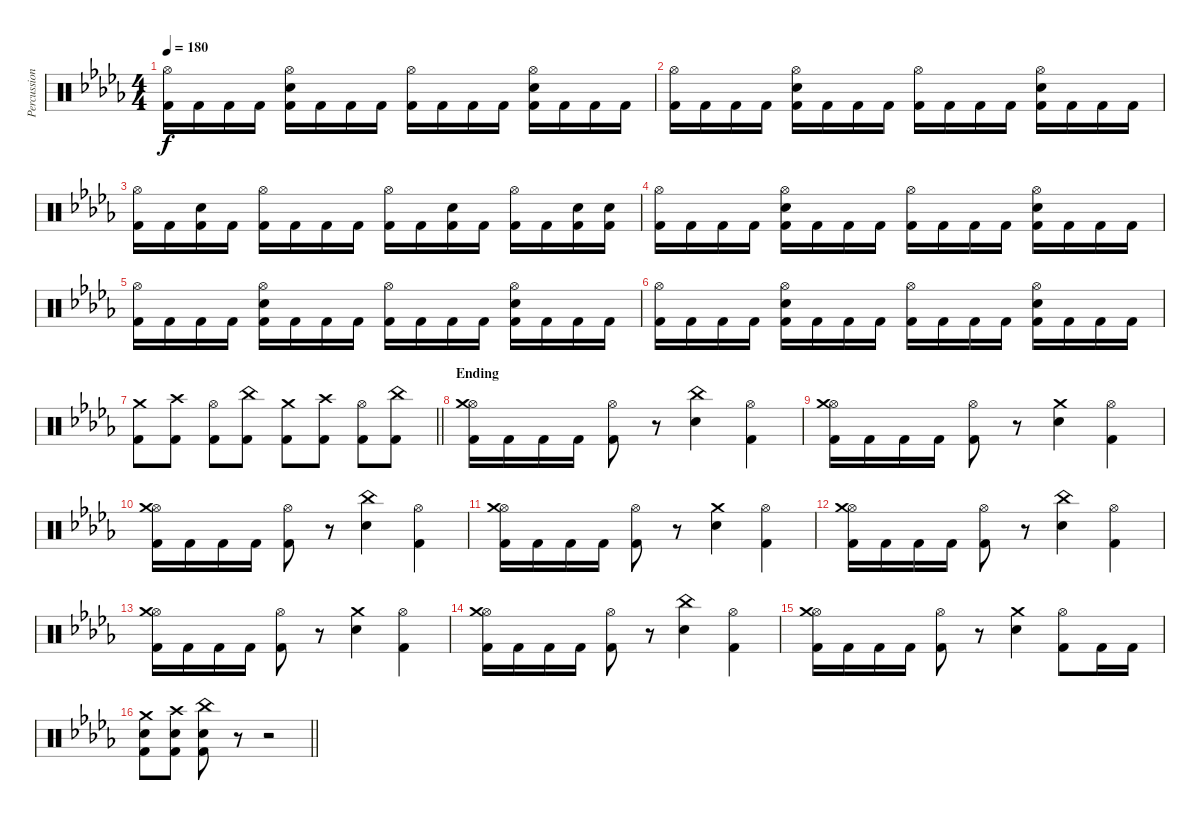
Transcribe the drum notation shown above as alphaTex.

\track ("Percussions" "Percussion") {instrument percussion}
\staff {score}
\articulation defaults
\ts (4 4)
\tempo 180
\clef neutral
\ks bbminor
("Hi-Hat (open)" "Kick (hit) 2").16{dy f} "Kick (hit) 2".16 "Kick (hit) 2".16 "Kick (hit) 2".16 ("Hi-Hat (open)" "Electric Snare (hit)" "Kick (hit) 2").16 "Kick (hit) 2".16 "Kick (hit) 2".16 "Kick (hit) 2".16 ("Hi-Hat (open)" "Kick (hit) 2").16 "Kick (hit) 2".16 "Kick (hit) 2".16 "Kick (hit) 2".16 ("Hi-Hat (open)" "Electric Snare (hit)" "Kick (hit) 2").16 "Kick (hit) 2".16 "Kick (hit) 2".16 "Kick (hit) 2".16 |
("Hi-Hat (open)" "Kick (hit) 2").16 "Kick (hit) 2".16 "Kick (hit) 2".16 "Kick (hit) 2".16 ("Hi-Hat (open)" "Electric Snare (hit)" "Kick (hit) 2").16 "Kick (hit) 2".16 "Kick (hit) 2".16 "Kick (hit) 2".16 ("Hi-Hat (open)" "Kick (hit) 2").16 "Kick (hit) 2".16 "Kick (hit) 2".16 "Kick (hit) 2".16 ("Hi-Hat (open)" "Electric Snare (hit)" "Kick (hit) 2").16 "Kick (hit) 2".16 "Kick (hit) 2".16 "Kick (hit) 2".16 |
("Hi-Hat (open)" "Kick (hit) 2").16 "Kick (hit) 2".16 ("Electric Snare (hit)" "Kick (hit) 2").16 "Kick (hit) 2".16 ("Hi-Hat (open)" "Kick (hit) 2").16 "Kick (hit) 2".16 "Kick (hit) 2".16 "Kick (hit) 2".16 ("Hi-Hat (open)" "Kick (hit) 2").16 "Kick (hit) 2".16 ("Electric Snare (hit)" "Kick (hit) 2").16 "Kick (hit) 2".16 ("Hi-Hat (open)" "Kick (hit) 2").16 "Kick (hit) 2".16 ("Electric Snare (hit)" "Kick (hit) 2").16 ("Electric Snare (hit)" "Kick (hit) 2").16 |
("Hi-Hat (open)" "Kick (hit) 2").16 "Kick (hit) 2".16 "Kick (hit) 2".16 "Kick (hit) 2".16 ("Hi-Hat (open)" "Electric Snare (hit)" "Kick (hit) 2").16 "Kick (hit) 2".16 "Kick (hit) 2".16 "Kick (hit) 2".16 ("Hi-Hat (open)" "Kick (hit) 2").16 "Kick (hit) 2".16 "Kick (hit) 2".16 "Kick (hit) 2".16 ("Hi-Hat (open)" "Electric Snare (hit)" "Kick (hit) 2").16 "Kick (hit) 2".16 "Kick (hit) 2".16 "Kick (hit) 2".16 |
("Hi-Hat (open)" "Kick (hit) 2").16 "Kick (hit) 2".16 "Kick (hit) 2".16 "Kick (hit) 2".16 ("Hi-Hat (open)" "Electric Snare (hit)" "Kick (hit) 2").16 "Kick (hit) 2".16 "Kick (hit) 2".16 "Kick (hit) 2".16 ("Hi-Hat (open)" "Kick (hit) 2").16 "Kick (hit) 2".16 "Kick (hit) 2".16 "Kick (hit) 2".16 ("Hi-Hat (open)" "Electric Snare (hit)" "Kick (hit) 2").16 "Kick (hit) 2".16 "Kick (hit) 2".16 "Kick (hit) 2".16 |
("Hi-Hat (open)" "Kick (hit) 2").16 "Kick (hit) 2".16 "Kick (hit) 2".16 "Kick (hit) 2".16 ("Hi-Hat (open)" "Electric Snare (hit)" "Kick (hit) 2").16 "Kick (hit) 2".16 "Kick (hit) 2".16 "Kick (hit) 2".16 ("Hi-Hat (open)" "Kick (hit) 2").16 "Kick (hit) 2".16 "Kick (hit) 2".16 "Kick (hit) 2".16 ("Hi-Hat (open)" "Electric Snare (hit)" "Kick (hit) 2").16 "Kick (hit) 2".16 "Kick (hit) 2".16 "Kick (hit) 2".16 |
\barLineRight lightlight
("Crash medium (hit)" "Kick (hit) 2").8 ("Crash high (hit)" "Kick (hit) 2").8 ("Hi-Hat (open)" "Kick (hit) 2").8 ("China (hit)" "Kick (hit) 2").8 ("Crash medium (hit)" "Kick (hit) 2").8 ("Crash high (hit)" "Kick (hit) 2").8 ("Hi-Hat (open)" "Kick (hit) 2").8 ("China (hit)" "Kick (hit) 2").8 |
\section ("" "Ending")
("Hi-Hat (open)" "Crash medium (hit)" "Kick (hit) 2").16 "Kick (hit) 2".16 "Kick (hit) 2".16 "Kick (hit) 2".16 ("Hi-Hat (open)" "Kick (hit) 2").8 r.8 ("China (hit)" "Electric Snare (hit)").4 ("Hi-Hat (open)" "Kick (hit) 2").4 |
("Hi-Hat (open)" "Crash medium (hit)" "Kick (hit) 2").16 "Kick (hit) 2".16 "Kick (hit) 2".16 "Kick (hit) 2".16 ("Hi-Hat (open)" "Kick (hit) 2").8 r.8 ("Crash medium (hit)" "Electric Snare (hit)").4 ("Hi-Hat (open)" "Kick (hit) 2").4 |
("Hi-Hat (open)" "Crash medium (hit)" "Kick (hit) 2").16 "Kick (hit) 2".16 "Kick (hit) 2".16 "Kick (hit) 2".16 ("Hi-Hat (open)" "Kick (hit) 2").8 r.8 ("China (hit)" "Electric Snare (hit)").4 ("Hi-Hat (open)" "Kick (hit) 2").4 |
("Hi-Hat (open)" "Crash medium (hit)" "Kick (hit) 2").16 "Kick (hit) 2".16 "Kick (hit) 2".16 "Kick (hit) 2".16 ("Hi-Hat (open)" "Kick (hit) 2").8 r.8 ("Crash medium (hit)" "Electric Snare (hit)").4 ("Hi-Hat (open)" "Kick (hit) 2").4 |
("Hi-Hat (open)" "Crash medium (hit)" "Kick (hit) 2").16 "Kick (hit) 2".16 "Kick (hit) 2".16 "Kick (hit) 2".16 ("Hi-Hat (open)" "Kick (hit) 2").8 r.8 ("China (hit)" "Electric Snare (hit)").4 ("Hi-Hat (open)" "Kick (hit) 2").4 |
("Hi-Hat (open)" "Crash medium (hit)" "Kick (hit) 2").16 "Kick (hit) 2".16 "Kick (hit) 2".16 "Kick (hit) 2".16 ("Hi-Hat (open)" "Kick (hit) 2").8 r.8 ("Crash medium (hit)" "Electric Snare (hit)").4 ("Hi-Hat (open)" "Kick (hit) 2").4 |
("Hi-Hat (open)" "Crash medium (hit)" "Kick (hit) 2").16 "Kick (hit) 2".16 "Kick (hit) 2".16 "Kick (hit) 2".16 ("Hi-Hat (open)" "Kick (hit) 2").8 r.8 ("China (hit)" "Electric Snare (hit)").4 ("Hi-Hat (open)" "Kick (hit) 2").4 |
("Hi-Hat (open)" "Crash medium (hit)" "Kick (hit) 2").16 "Kick (hit) 2".16 "Kick (hit) 2".16 "Kick (hit) 2".16 ("Hi-Hat (open)" "Kick (hit) 2").8 r.8 ("Crash medium (hit)" "Electric Snare (hit)").4 ("Hi-Hat (open)" "Kick (hit) 2").8 "Kick (hit) 2".16 "Kick (hit) 2".16 |
\barLineRight lightlight
("Crash medium (hit)" "Electric Snare (hit)" "Kick (hit) 2").8 ("Crash high (hit)" "Electric Snare (hit)" "Kick (hit) 2").8 ("China (hit)" "Electric Snare (hit)" "Kick (hit) 2").8 r.8 r.2
